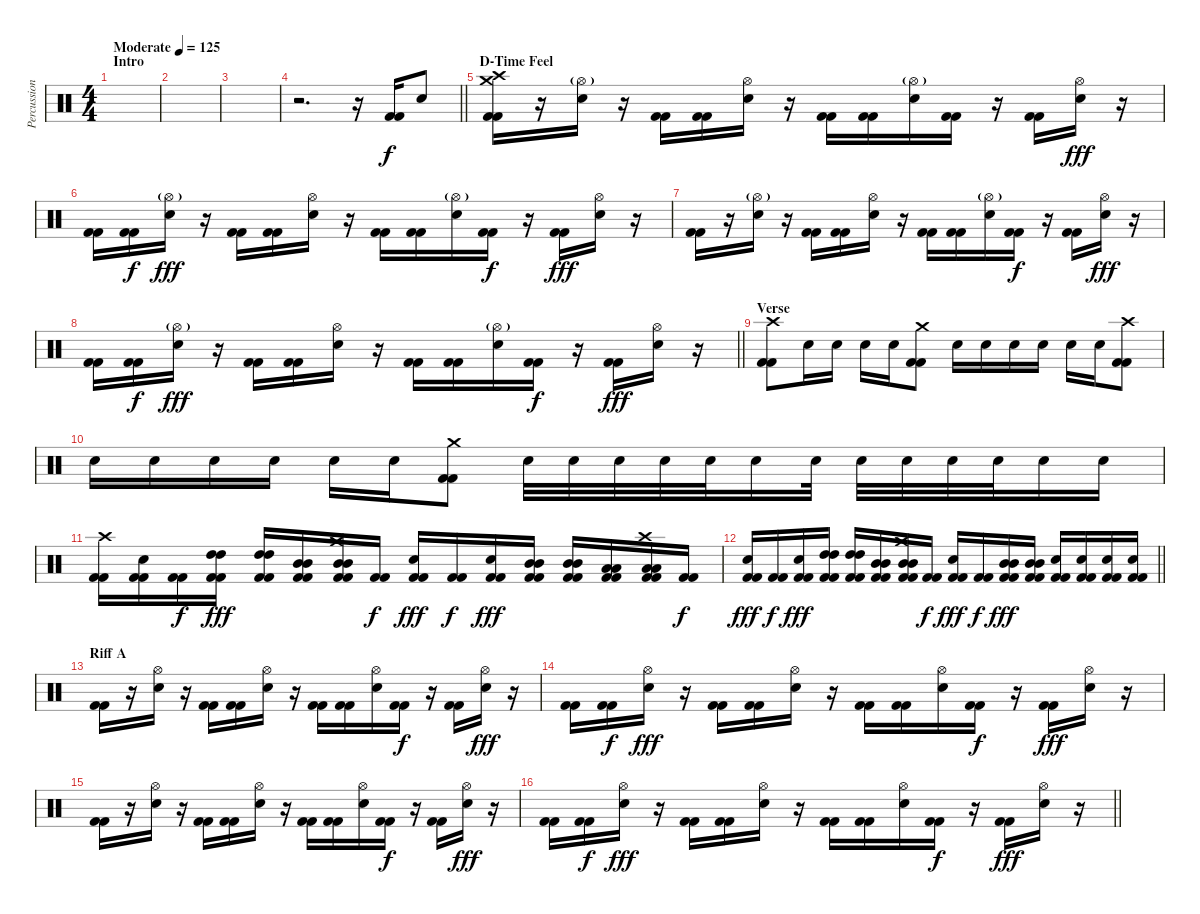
\track ("Percussion" "Percussion") {solo instrument percussion}
\staff {score}
\articulation defaults
\ts (4 4)
\section ("" "Intro")
\tempo (125 "Moderate")
\clef neutral
\ks c
|
|
|
\barLineRight lightlight
r.2{d} r.16 ("Kick (hit) 2" "Kick (hit) 2").16 "Electric Snare (hit)".8 |
\section ("" "D-Time Feel")
("Crash medium (hit)" "Crash high (hit)" "Kick (hit) 2" "Kick (hit) 2").16 r.16 ("Hi-Hat (open)"{g} "Electric Snare (hit)").16 r.16 ("Kick (hit) 2" "Kick (hit) 2").16 ("Kick (hit) 2" "Kick (hit) 2").16 ("Hi-Hat (open)" "Electric Snare (hit)").16 r.16 ("Kick (hit) 2" "Kick (hit) 2").16 ("Kick (hit) 2" "Kick (hit) 2").16 ("Hi-Hat (open)"{g} "Electric Snare (hit)").16 ("Kick (hit) 2" "Kick (hit) 2").16{dy f} r.16 ("Kick (hit) 2" "Kick (hit) 2").16 ("Hi-Hat (open)" "Electric Snare (hit)").16{dy fff} r.16 |
("Kick (hit) 2" "Kick (hit) 2").16 ("Kick (hit) 2" "Kick (hit) 2").16{dy f} ("Hi-Hat (open)"{g} "Electric Snare (hit)").16{dy fff} r.16 ("Kick (hit) 2" "Kick (hit) 2").16 ("Kick (hit) 2" "Kick (hit) 2").16 ("Hi-Hat (open)" "Electric Snare (hit)").16 r.16 ("Kick (hit) 2" "Kick (hit) 2").16 ("Kick (hit) 2" "Kick (hit) 2").16 ("Hi-Hat (open)"{g} "Electric Snare (hit)").16 ("Kick (hit) 2" "Kick (hit) 2").16{dy f} r.16 ("Kick (hit) 2" "Kick (hit) 2").16{dy fff} ("Hi-Hat (open)" "Electric Snare (hit)").16 r.16 |
("Kick (hit) 2" "Kick (hit) 2").16 r.16 ("Hi-Hat (open)"{g} "Electric Snare (hit)").16 r.16 ("Kick (hit) 2" "Kick (hit) 2").16 ("Kick (hit) 2" "Kick (hit) 2").16 ("Hi-Hat (open)" "Electric Snare (hit)").16 r.16 ("Kick (hit) 2" "Kick (hit) 2").16 ("Kick (hit) 2" "Kick (hit) 2").16 ("Hi-Hat (open)"{g} "Electric Snare (hit)").16 ("Kick (hit) 2" "Kick (hit) 2").16{dy f} r.16 ("Kick (hit) 2" "Kick (hit) 2").16 ("Hi-Hat (open)" "Electric Snare (hit)").16{dy fff} r.16 |
\barLineRight lightlight
("Kick (hit) 2" "Kick (hit) 2").16 ("Kick (hit) 2" "Kick (hit) 2").16{dy f} ("Hi-Hat (open)"{g} "Electric Snare (hit)").16{dy fff} r.16 ("Kick (hit) 2" "Kick (hit) 2").16 ("Kick (hit) 2" "Kick (hit) 2").16 ("Hi-Hat (open)" "Electric Snare (hit)").16 r.16 ("Kick (hit) 2" "Kick (hit) 2").16 ("Kick (hit) 2" "Kick (hit) 2").16 ("Hi-Hat (open)"{g} "Electric Snare (hit)").16 ("Kick (hit) 2" "Kick (hit) 2").16{dy f} r.16 ("Kick (hit) 2" "Kick (hit) 2").16{dy fff} ("Hi-Hat (open)" "Electric Snare (hit)").16 r.16 |
\section ("" "Verse")
("Crash high (hit)" "Kick (hit) 2" "Kick (hit) 2").8 "Electric Snare (hit)".16 "Electric Snare (hit)".16 "Electric Snare (hit)".16 "Electric Snare (hit)".16 ("Crash medium (hit)" "Kick (hit) 2" "Kick (hit) 2").8 "Electric Snare (hit)".16 "Electric Snare (hit)".16 "Electric Snare (hit)".16 "Electric Snare (hit)".16 "Electric Snare (hit)".16 "Electric Snare (hit)".16 ("Crash high (hit)" "Kick (hit) 2" "Kick (hit) 2").8 |
"Electric Snare (hit)".16 "Electric Snare (hit)".16 "Electric Snare (hit)".16 "Electric Snare (hit)".16 "Electric Snare (hit)".16 "Electric Snare (hit)".16 ("Crash medium (hit)" "Kick (hit) 2" "Kick (hit) 2").8 "Electric Snare (hit)".32 "Electric Snare (hit)".32 "Electric Snare (hit)".32 "Electric Snare (hit)".32 "Electric Snare (hit)".32 "Electric Snare (hit)".16 "Electric Snare (hit)".32 "Electric Snare (hit)".32 "Electric Snare (hit)".32 "Electric Snare (hit)".32 "Electric Snare (hit)".32 "Electric Snare (hit)".16 "Electric Snare (hit)".16 |
("Crash high (hit)" "Kick (hit) 2" "Kick (hit) 2").16 ("Electric Snare (hit)" "Kick (hit) 2" "Kick (hit) 2").16 ("Kick (hit) 2" "Kick (hit) 2").16{dy f} ("High Tom (hit)" "High Tom (hit)" "Kick (hit) 2" "Kick (hit) 2").16{dy fff} ("High Tom (hit)" "High Tom (hit)" "Kick (hit) 2" "Kick (hit) 2").16 ("Mid Tom (hit)" "Mid Tom (hit)" "Kick (hit) 2" "Kick (hit) 2").16 ("Crash medium (hit)" "Mid Tom (hit)" "Mid Tom (hit)" "Kick (hit) 2" "Kick (hit) 2").16 ("Kick (hit) 2" "Kick (hit) 2").16{dy f} ("Electric Snare (hit)" "Kick (hit) 2" "Kick (hit) 2").16{dy fff} ("Kick (hit) 2" "Kick (hit) 2").16{dy f} ("Electric Snare (hit)" "Kick (hit) 2" "Kick (hit) 2").16{dy fff} ("Mid Tom (hit)" "Mid Tom (hit)" "Kick (hit) 2" "Kick (hit) 2").16 ("Mid Tom (hit)" "Mid Tom (hit)" "Kick (hit) 2" "Kick (hit) 2").16 ("Low Tom (hit)" "Low Tom (hit)" "Kick (hit) 2" "Kick (hit) 2").16 ("Crash high (hit)" "Low Tom (hit)" "Low Tom (hit)" "Kick (hit) 2" "Kick (hit) 2").16 ("Kick (hit) 2" "Kick (hit) 2").16{dy f} |
\barLineRight lightlight
("Electric Snare (hit)" "Kick (hit) 2" "Kick (hit) 2").16{dy fff} ("Kick (hit) 2" "Kick (hit) 2").16{dy f} ("Electric Snare (hit)" "Kick (hit) 2" "Kick (hit) 2").16{dy fff} ("High Tom (hit)" "High Tom (hit)" "Kick (hit) 2" "Kick (hit) 2").16 ("High Tom (hit)" "High Tom (hit)" "Kick (hit) 2" "Kick (hit) 2").16 ("Mid Tom (hit)" "Mid Tom (hit)" "Kick (hit) 2" "Kick (hit) 2").16 ("Crash medium (hit)" "Mid Tom (hit)" "Mid Tom (hit)" "Kick (hit) 2" "Kick (hit) 2").16 ("Kick (hit) 2" "Kick (hit) 2").16{dy f} ("Electric Snare (hit)" "Kick (hit) 2" "Kick (hit) 2").16{dy fff} ("Kick (hit) 2" "Kick (hit) 2").16{dy f} ("Mid Tom (hit)" "Mid Tom (hit)" "Kick (hit) 2" "Kick (hit) 2").16{dy fff} ("Mid Tom (hit)" "Mid Tom (hit)" "Kick (hit) 2" "Kick (hit) 2").16 ("Electric Snare (hit)" "Kick (hit) 2" "Kick (hit) 2").16 ("Electric Snare (hit)" "Kick (hit) 2" "Kick (hit) 2").16 ("Electric Snare (hit)" "Kick (hit) 2" "Kick (hit) 2").16 ("Electric Snare (hit)" "Kick (hit) 2" "Kick (hit) 2").16 |
\section ("" "Riff A")
("Kick (hit) 2" "Kick (hit) 2").16 r.16 ("Hi-Hat (open)" "Electric Snare (hit)").16 r.16 ("Kick (hit) 2" "Kick (hit) 2").16 ("Kick (hit) 2" "Kick (hit) 2").16 ("Hi-Hat (open)" "Electric Snare (hit)").16 r.16 ("Kick (hit) 2" "Kick (hit) 2").16 ("Kick (hit) 2" "Kick (hit) 2").16 ("Hi-Hat (open)" "Electric Snare (hit)").16 ("Kick (hit) 2" "Kick (hit) 2").16{dy f} r.16 ("Kick (hit) 2" "Kick (hit) 2").16 ("Hi-Hat (open)" "Electric Snare (hit)").16{dy fff} r.16 |
("Kick (hit) 2" "Kick (hit) 2").16 ("Kick (hit) 2" "Kick (hit) 2").16{dy f} ("Hi-Hat (open)" "Electric Snare (hit)").16{dy fff} r.16 ("Kick (hit) 2" "Kick (hit) 2").16 ("Kick (hit) 2" "Kick (hit) 2").16 ("Hi-Hat (open)" "Electric Snare (hit)").16 r.16 ("Kick (hit) 2" "Kick (hit) 2").16 ("Kick (hit) 2" "Kick (hit) 2").16 ("Hi-Hat (open)" "Electric Snare (hit)").16 ("Kick (hit) 2" "Kick (hit) 2").16{dy f} r.16 ("Kick (hit) 2" "Kick (hit) 2").16{dy fff} ("Hi-Hat (open)" "Electric Snare (hit)").16 r.16 |
("Kick (hit) 2" "Kick (hit) 2").16 r.16 ("Hi-Hat (open)" "Electric Snare (hit)").16 r.16 ("Kick (hit) 2" "Kick (hit) 2").16 ("Kick (hit) 2" "Kick (hit) 2").16 ("Hi-Hat (open)" "Electric Snare (hit)").16 r.16 ("Kick (hit) 2" "Kick (hit) 2").16 ("Kick (hit) 2" "Kick (hit) 2").16 ("Hi-Hat (open)" "Electric Snare (hit)").16 ("Kick (hit) 2" "Kick (hit) 2").16{dy f} r.16 ("Kick (hit) 2" "Kick (hit) 2").16 ("Hi-Hat (open)" "Electric Snare (hit)").16{dy fff} r.16 |
\barLineRight lightlight
("Kick (hit) 2" "Kick (hit) 2").16 ("Kick (hit) 2" "Kick (hit) 2").16{dy f} ("Hi-Hat (open)" "Electric Snare (hit)").16{dy fff} r.16 ("Kick (hit) 2" "Kick (hit) 2").16 ("Kick (hit) 2" "Kick (hit) 2").16 ("Hi-Hat (open)" "Electric Snare (hit)").16 r.16 ("Kick (hit) 2" "Kick (hit) 2").16 ("Kick (hit) 2" "Kick (hit) 2").16 ("Hi-Hat (open)" "Electric Snare (hit)").16 ("Kick (hit) 2" "Kick (hit) 2").16{dy f} r.16 ("Kick (hit) 2" "Kick (hit) 2").16{dy fff} ("Hi-Hat (open)" "Electric Snare (hit)").16 r.16
